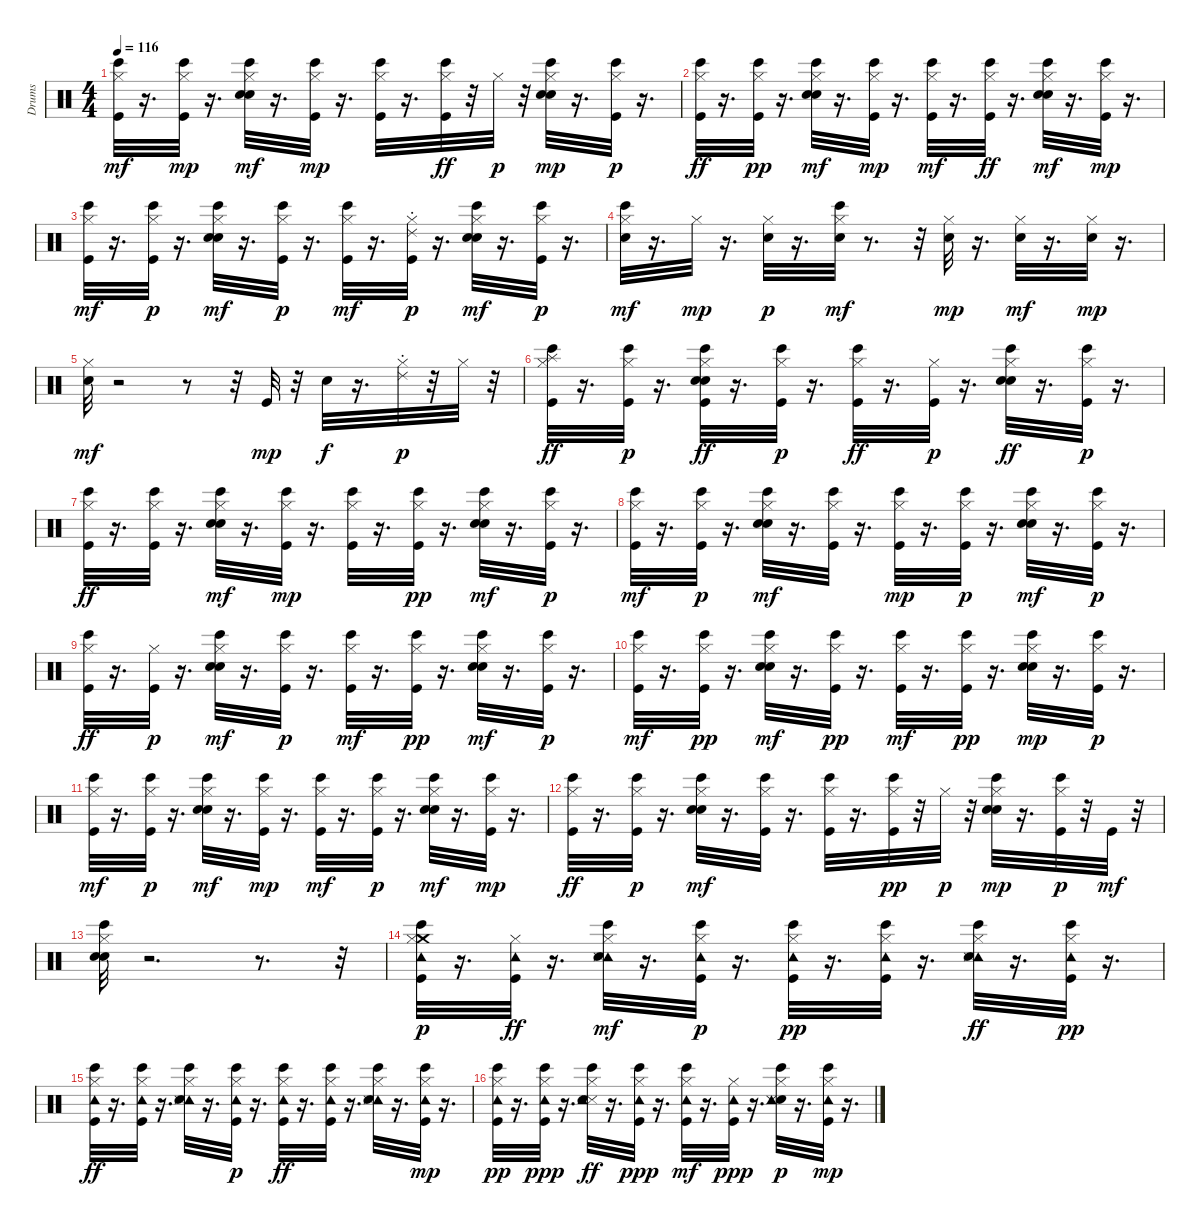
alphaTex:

\track ("Drums" "Drums") {instrument percussion}
\staff {score}
\articulation defaults
\ts (4 4)
\tempo 116
\clef neutral
\ks c
("Bongo High (hit)" "Hi-Hat (closed)" "Kick (hit)").32{dy mf} r.16{d} ("Kick (hit)" "Bongo High (hit)" "Hi-Hat (closed)").32{dy mp} r.16{d} ("Bongo High (hit)" "Hi-Hat (closed)" "Electric Snare (hit)" "Snare (hit) 2").32{dy mf} r.16{d} ("Kick (hit)" "Bongo High (hit)" "Hi-Hat (closed)").32{dy mp} r.16{d} ("Bongo High (hit)" "Hi-Hat (closed)" "Kick (hit)").32 r.16{d} ("Bongo High (hit)" "Hi-Hat (closed)" "Kick (hit)").32{dy ff} r.32 "Hi-Hat (closed)".32{dy p} r.32 ("Snare (hit) 2" "Electric Snare (hit)" "Bongo High (hit)" "Hi-Hat (closed)").32{dy mp} r.16{d} ("Kick (hit)" "Hi-Hat (closed)" "Bongo High (hit)").32{dy p} r.16{d} |
("Bongo High (hit)" "Hi-Hat (closed)" "Kick (hit)").32{dy ff} r.16{d} ("Hi-Hat (closed)" "Kick (hit)" "Bongo High (hit)").32{dy pp} r.16{d} ("Snare (hit) 2" "Electric Snare (hit)" "Hi-Hat (closed)" "Bongo High (hit)").32{dy mf} r.16{d} ("Bongo High (hit)" "Hi-Hat (closed)" "Kick (hit)").32{dy mp} r.16{d} ("Kick (hit)" "Hi-Hat (closed)" "Bongo High (hit)").32{dy mf} r.16{d} ("Bongo High (hit)" "Hi-Hat (closed)" "Kick (hit)").32{dy ff} r.16{d} ("Bongo High (hit)" "Hi-Hat (closed)" "Electric Snare (hit)" "Snare (hit) 2").32{dy mf} r.16{d} ("Kick (hit)" "Bongo High (hit)" "Hi-Hat (closed)").32{dy mp} r.16{d} |
("Kick (hit)" "Hi-Hat (closed)" "Bongo High (hit)").32{dy mf} r.16{d} ("Kick (hit)" "Hi-Hat (closed)" "Bongo High (hit)").32{dy p} r.16{d} ("Bongo High (hit)" "Hi-Hat (closed)" "Electric Snare (hit)" "Snare (hit) 2").32{dy mf} r.16{d} ("Kick (hit)" "Hi-Hat (closed)" "Bongo High (hit)").32{dy p} r.16{d} ("Hi-Hat (closed)" "Kick (hit)" "Bongo High (hit)").32{dy mf} r.16{d} ("Hi-Hat (closed)" "Kick (hit)" "Ride (choke) 2").32{dy p} r.16{d} ("Electric Snare (hit)" "Snare (hit) 2" "Hi-Hat (closed)" "Bongo High (hit)").32{dy mf} r.16{d} ("Kick (hit)" "Hi-Hat (closed)" "Bongo High (hit)").32{dy p} r.16{d} |
("Snare (hit) 2" "Bongo High (hit)" "Hi-Hat (closed)").32{dy mf} r.16{d} "Hi-Hat (closed)".32{dy mp} r.16{d} ("Hi-Hat (closed)" "Snare (hit) 2").32{dy p} r.16{d} ("Bongo High (hit)" "Snare (hit) 2" "Hi-Hat (closed)").32{dy mf} r.8{d} r.32 ("Hi-Hat (closed)" "Snare (hit) 2").32{dy mp} r.16{d} ("Hi-Hat (closed)" "Snare (hit) 2").32{dy mf} r.16{d} ("Hi-Hat (closed)" "Snare (hit) 2").32{dy mp} r.16{d} |
("Hi-Hat (closed)" "Snare (hit) 2").32{dy mf} r.2 r.8 r.32 "Kick (hit)".32{dy mp} r.32 "Electric Snare (hit)".32{dy f} r.16{d} ("Ride (choke) 2" "Hi-Hat (closed)").32{dy p} r.32 "Hi-Hat (closed)".32 r.32 |
("Kick (hit)" "Hi-Hat (closed)" "Bongo High (hit)" "Splash (hit)").32{dy ff} r.16{d} ("Bongo High (hit)" "Hi-Hat (closed)" "Kick (hit)").32{dy p} r.16{d} ("Kick (hit)" "Electric Snare (hit)" "Snare (hit) 2" "Hi-Hat (closed)" "Bongo High (hit)").32{dy ff} r.16{d} ("Hi-Hat (closed)" "Kick (hit)" "Bongo High (hit)").32{dy p} r.16{d} ("Kick (hit)" "Hi-Hat (closed)" "Bongo High (hit)").32{dy ff} r.16{d} ("Kick (hit)" "Hi-Hat (closed)").32{dy p} r.16{d} ("Hi-Hat (closed)" "Snare (hit) 2" "Electric Snare (hit)" "Bongo High (hit)").32{dy ff} r.16{d} ("Kick (hit)" "Hi-Hat (closed)" "Bongo High (hit)").32{dy p} r.16{d} |
("Kick (hit)" "Hi-Hat (closed)" "Bongo High (hit)").32{dy ff} r.16{d} ("Bongo High (hit)" "Hi-Hat (closed)" "Kick (hit)").32 r.16{d} ("Bongo High (hit)" "Hi-Hat (closed)" "Snare (hit) 2" "Electric Snare (hit)").32{dy mf} r.16{d} ("Bongo High (hit)" "Hi-Hat (closed)" "Kick (hit)").32{dy mp} r.16{d} ("Kick (hit)" "Hi-Hat (closed)" "Bongo High (hit)").32 r.16{d} ("Kick (hit)" "Hi-Hat (closed)" "Bongo High (hit)").32{dy pp} r.16{d} ("Bongo High (hit)" "Snare (hit) 2" "Hi-Hat (closed)" "Electric Snare (hit)").32{dy mf} r.16{d} ("Kick (hit)" "Hi-Hat (closed)" "Bongo High (hit)").32{dy p} r.16{d} |
("Kick (hit)" "Bongo High (hit)" "Hi-Hat (closed)").32{dy mf} r.16{d} ("Kick (hit)" "Hi-Hat (closed)" "Bongo High (hit)").32{dy p} r.16{d} ("Electric Snare (hit)" "Bongo High (hit)" "Hi-Hat (closed)" "Snare (hit) 2").32{dy mf} r.16{d} ("Bongo High (hit)" "Hi-Hat (closed)" "Kick (hit)").32 r.16{d} ("Hi-Hat (closed)" "Kick (hit)" "Bongo High (hit)").32{dy mp} r.16{d} ("Kick (hit)" "Hi-Hat (closed)" "Bongo High (hit)").32{dy p} r.16{d} ("Bongo High (hit)" "Hi-Hat (closed)" "Snare (hit) 2" "Electric Snare (hit)").32{dy mf} r.16{d} ("Kick (hit)" "Hi-Hat (closed)" "Bongo High (hit)").32{dy p} r.16{d} |
("Hi-Hat (closed)" "Kick (hit)" "Bongo High (hit)").32{dy ff} r.16{d} ("Kick (hit)" "Hi-Hat (closed)").32{dy p} r.16{d} ("Hi-Hat (closed)" "Bongo High (hit)" "Electric Snare (hit)" "Snare (hit) 2").32{dy mf} r.16{d} ("Hi-Hat (closed)" "Kick (hit)" "Bongo High (hit)").32{dy p} r.16{d} ("Kick (hit)" "Hi-Hat (closed)" "Bongo High (hit)").32{dy mf} r.16{d} ("Hi-Hat (closed)" "Kick (hit)" "Bongo High (hit)").32{dy pp} r.16{d} ("Electric Snare (hit)" "Snare (hit) 2" "Bongo High (hit)" "Hi-Hat (closed)").32{dy mf} r.16{d} ("Kick (hit)" "Hi-Hat (closed)" "Bongo High (hit)").32{dy p} r.16{d} |
("Kick (hit)" "Hi-Hat (closed)" "Bongo High (hit)").32{dy mf} r.16{d} ("Kick (hit)" "Hi-Hat (closed)" "Bongo High (hit)").32{dy pp} r.16{d} ("Bongo High (hit)" "Snare (hit) 2" "Hi-Hat (closed)" "Electric Snare (hit)").32{dy mf} r.16{d} ("Kick (hit)" "Hi-Hat (closed)" "Bongo High (hit)").32{dy pp} r.16{d} ("Hi-Hat (closed)" "Kick (hit)" "Bongo High (hit)").32{dy mf} r.16{d} ("Kick (hit)" "Hi-Hat (closed)" "Bongo High (hit)").32{dy pp} r.16{d} ("Bongo High (hit)" "Hi-Hat (closed)" "Electric Snare (hit)" "Snare (hit) 2").32{dy mp} r.16{d} ("Hi-Hat (closed)" "Kick (hit)" "Bongo High (hit)").32{dy p} r.16{d} |
("Kick (hit)" "Hi-Hat (closed)" "Bongo High (hit)").32{dy mf} r.16{d} ("Kick (hit)" "Bongo High (hit)" "Hi-Hat (closed)").32{dy p} r.16{d} ("Electric Snare (hit)" "Bongo High (hit)" "Hi-Hat (closed)" "Snare (hit) 2").32{dy mf} r.16{d} ("Bongo High (hit)" "Hi-Hat (closed)" "Kick (hit)").32{dy mp} r.16{d} ("Kick (hit)" "Hi-Hat (closed)" "Bongo High (hit)").32{dy mf} r.16{d} ("Hi-Hat (closed)" "Kick (hit)" "Bongo High (hit)").32{dy p} r.16{d} ("Snare (hit) 2" "Electric Snare (hit)" "Hi-Hat (closed)" "Bongo High (hit)").32{dy mf} r.16{d} ("Bongo High (hit)" "Hi-Hat (closed)" "Kick (hit)").32{dy mp} r.16{d} |
("Bongo High (hit)" "Hi-Hat (closed)" "Kick (hit)").32{dy ff} r.16{d} ("Kick (hit)" "Hi-Hat (closed)" "Bongo High (hit)").32{dy p} r.16{d} ("Snare (hit) 2" "Electric Snare (hit)" "Hi-Hat (closed)" "Bongo High (hit)").32{dy mf} r.16{d} ("Bongo High (hit)" "Hi-Hat (closed)" "Kick (hit)").32 r.16{d} ("Bongo High (hit)" "Hi-Hat (closed)" "Kick (hit)").32 r.16{d} ("Kick (hit)" "Hi-Hat (closed)" "Bongo High (hit)").32{dy pp} r.32 "Hi-Hat (closed)".32{dy p} r.32 ("Snare (hit) 2" "Electric Snare (hit)" "Hi-Hat (closed)" "Bongo High (hit)").32{dy mp} r.16{d} ("Hi-Hat (closed)" "Kick (hit)" "Bongo High (hit)").32{dy p} r.32 "Kick (hit)".32{dy mf} r.32 |
("Bongo High (hit)" "Snare (hit) 2" "Electric Snare (hit)" "Hi-Hat (closed)").32 r.2{d} r.8{d} r.32 |
("Kick (hit)" "Crash medium (hit)" "Hi-Hat (closed)" "Bongo High (hit)" "Tambourine (hit)").32{dy p} r.16{d} ("Tambourine (hit)" "Hi-Hat (closed)" "Kick (hit)").32{dy ff} r.16{d} ("Tambourine (hit)" "Hi-Hat (closed)" "Snare (side stick) 3" "Snare (hit) 2" "Bongo High (hit)").32{dy mf} r.16{d} ("Tambourine (hit)" "Bongo High (hit)" "Kick (hit)" "Hi-Hat (closed)").32{dy p} r.16{d} ("Hi-Hat (closed)" "Kick (hit)" "Bongo High (hit)" "Tambourine (hit)").32{dy pp} r.16{d} ("Hi-Hat (closed)" "Kick (hit)" "Bongo High (hit)" "Tambourine (hit)").32 r.16{d} ("Tambourine (hit)" "Snare (hit) 2" "Hi-Hat (closed)" "Bongo High (hit)" "Snare (side stick) 3").32{dy ff} r.16{d} ("Kick (hit)" "Hi-Hat (closed)" "Bongo High (hit)" "Tambourine (hit)").32{dy pp} r.16{d} |
("Hi-Hat (closed)" "Bongo High (hit)" "Tambourine (hit)" "Kick (hit)").32{dy ff} r.16{d} ("Tambourine (hit)" "Hi-Hat (closed)" "Bongo High (hit)" "Kick (hit)").32 r.16{d} ("Bongo High (hit)" "Tambourine (hit)" "Hi-Hat (closed)" "Snare (hit) 2" "Snare (side stick) 3").32 r.16{d} ("Tambourine (hit)" "Bongo High (hit)" "Kick (hit)" "Hi-Hat (closed)").32{dy p} r.16{d} ("Bongo High (hit)" "Tambourine (hit)" "Hi-Hat (closed)" "Kick (hit)").32{dy ff} r.16{d} ("Hi-Hat (closed)" "Bongo High (hit)" "Tambourine (hit)" "Kick (hit)").32 r.16{d} ("Tambourine (hit)" "Hi-Hat (closed)" "Snare (hit) 2" "Bongo High (hit)" "Snare (side stick) 3").32 r.16{d} ("Bongo High (hit)" "Tambourine (hit)" "Hi-Hat (closed)" "Kick (hit)").32{dy mp} r.16{d} |
("Kick (hit)" "Hi-Hat (closed)" "Bongo High (hit)" "Tambourine (hit)").32{dy pp} r.16{d} ("Kick (hit)" "Hi-Hat (closed)" "Bongo High (hit)" "Tambourine (hit)").32{dy ppp} r.16{d} ("Snare (side stick) 3" "Hi-Hat (closed)" "Snare (hit) 2" "Tambourine (hit)" "Bongo High (hit)").32{dy ff} r.16{d} ("Kick (hit)" "Hi-Hat (closed)" "Bongo High (hit)" "Tambourine (hit)").32{dy ppp} r.16{d} ("Tambourine (hit)" "Bongo High (hit)" "Kick (hit)" "Hi-Hat (closed)").32{dy mf} r.16{d} ("Kick (hit)" "Hi-Hat (closed)" "Tambourine (hit)").32{dy ppp} r.16{d} ("Hi-Hat (closed)" "Snare (hit) 2" "Snare (side stick) 3" "Bongo High (hit)" "Tambourine (hit)").32{dy p} r.16{d} ("Tambourine (hit)" "Hi-Hat (closed)" "Bongo High (hit)" "Kick (hit)").32{dy mp} r.16{d}
